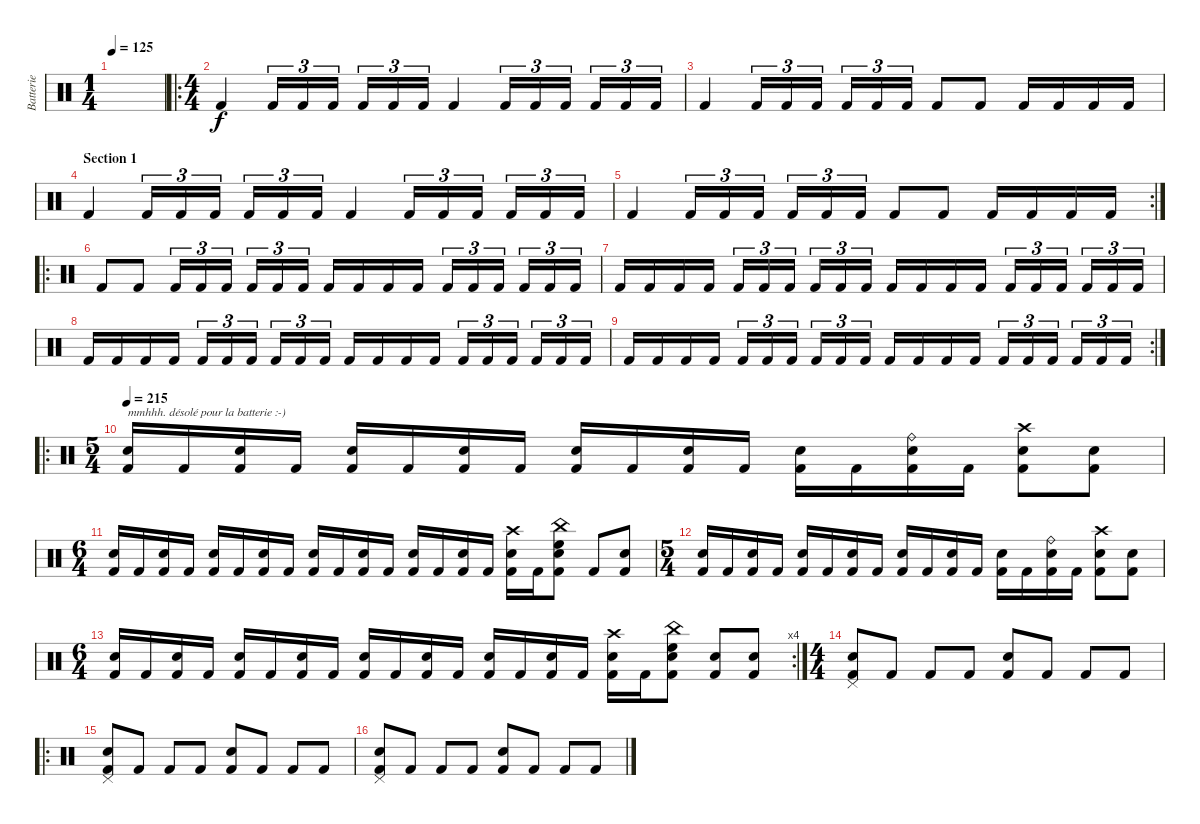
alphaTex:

\track ("Batterie" "Batterie") {instrument percussion}
\staff {score}
\articulation defaults
\ts (1 4)
\tempo 125
\clef neutral
\ks c
|
\ro
\ts (4 4)
"Kick (hit) 2".4 "Kick (hit) 2".16{tu (3 2)} "Kick (hit) 2".16{tu (3 2)} "Kick (hit) 2".16{tu (3 2)} "Kick (hit) 2".16{tu (3 2)} "Kick (hit) 2".16{tu (3 2)} "Kick (hit) 2".16{tu (3 2)} "Kick (hit) 2".4 "Kick (hit) 2".16{tu (3 2)} "Kick (hit) 2".16{tu (3 2)} "Kick (hit) 2".16{tu (3 2)} "Kick (hit) 2".16{tu (3 2)} "Kick (hit) 2".16{tu (3 2)} "Kick (hit) 2".16{tu (3 2)} |
"Kick (hit) 2".4 "Kick (hit) 2".16{tu (3 2)} "Kick (hit) 2".16{tu (3 2)} "Kick (hit) 2".16{tu (3 2)} "Kick (hit) 2".16{tu (3 2)} "Kick (hit) 2".16{tu (3 2)} "Kick (hit) 2".16{tu (3 2)} "Kick (hit) 2".8 "Kick (hit) 2".8 "Kick (hit) 2".16 "Kick (hit) 2".16 "Kick (hit) 2".16 "Kick (hit) 2".16 |
\section ("" "Section 1")
"Kick (hit) 2".4 "Kick (hit) 2".16{tu (3 2)} "Kick (hit) 2".16{tu (3 2)} "Kick (hit) 2".16{tu (3 2)} "Kick (hit) 2".16{tu (3 2)} "Kick (hit) 2".16{tu (3 2)} "Kick (hit) 2".16{tu (3 2)} "Kick (hit) 2".4 "Kick (hit) 2".16{tu (3 2)} "Kick (hit) 2".16{tu (3 2)} "Kick (hit) 2".16{tu (3 2)} "Kick (hit) 2".16{tu (3 2)} "Kick (hit) 2".16{tu (3 2)} "Kick (hit) 2".16{tu (3 2)} |
\rc 2 "Kick (hit) 2".4 "Kick (hit) 2".16{tu (3 2)} "Kick (hit) 2".16{tu (3 2)} "Kick (hit) 2".16{tu (3 2)} "Kick (hit) 2".16{tu (3 2)} "Kick (hit) 2".16{tu (3 2)} "Kick (hit) 2".16{tu (3 2)} "Kick (hit) 2".8 "Kick (hit) 2".8 "Kick (hit) 2".16 "Kick (hit) 2".16 "Kick (hit) 2".16 "Kick (hit) 2".16
|
\ro "Kick (hit) 2".8 "Kick (hit) 2".8 "Kick (hit) 2".16{tu (3 2)} "Kick (hit) 2".16{tu (3 2)} "Kick (hit) 2".16{tu (3 2)} "Kick (hit) 2".16{tu (3 2)} "Kick (hit) 2".16{tu (3 2)} "Kick (hit) 2".16{tu (3 2)} "Kick (hit) 2".16 "Kick (hit) 2".16 "Kick (hit) 2".16 "Kick (hit) 2".16 "Kick (hit) 2".16{tu (3 2)} "Kick (hit) 2".16{tu (3 2)} "Kick (hit) 2".16{tu (3 2)} "Kick (hit) 2".16{tu (3 2)} "Kick (hit) 2".16{tu (3 2)} "Kick (hit) 2".16{tu (3 2)}
|
"Kick (hit) 2".16 "Kick (hit) 2".16 "Kick (hit) 2".16 "Kick (hit) 2".16 "Kick (hit) 2".16{tu (3 2)} "Kick (hit) 2".16{tu (3 2)} "Kick (hit) 2".16{tu (3 2)} "Kick (hit) 2".16{tu (3 2)} "Kick (hit) 2".16{tu (3 2)} "Kick (hit) 2".16{tu (3 2)} "Kick (hit) 2".16 "Kick (hit) 2".16 "Kick (hit) 2".16 "Kick (hit) 2".16 "Kick (hit) 2".16{tu (3 2)} "Kick (hit) 2".16{tu (3 2)} "Kick (hit) 2".16{tu (3 2)} "Kick (hit) 2".16{tu (3 2)} "Kick (hit) 2".16{tu (3 2)} "Kick (hit) 2".16{tu (3 2)} |
"Kick (hit) 2".16 "Kick (hit) 2".16 "Kick (hit) 2".16 "Kick (hit) 2".16 "Kick (hit) 2".16{tu (3 2)} "Kick (hit) 2".16{tu (3 2)} "Kick (hit) 2".16{tu (3 2)} "Kick (hit) 2".16{tu (3 2)} "Kick (hit) 2".16{tu (3 2)} "Kick (hit) 2".16{tu (3 2)} "Kick (hit) 2".16 "Kick (hit) 2".16 "Kick (hit) 2".16 "Kick (hit) 2".16 "Kick (hit) 2".16{tu (3 2)} "Kick (hit) 2".16{tu (3 2)} "Kick (hit) 2".16{tu (3 2)} "Kick (hit) 2".16{tu (3 2)} "Kick (hit) 2".16{tu (3 2)} "Kick (hit) 2".16{tu (3 2)} |
\rc 2 "Kick (hit) 2".16 "Kick (hit) 2".16 "Kick (hit) 2".16 "Kick (hit) 2".16 "Kick (hit) 2".16{tu (3 2)} "Kick (hit) 2".16{tu (3 2)} "Kick (hit) 2".16{tu (3 2)} "Kick (hit) 2".16{tu (3 2)} "Kick (hit) 2".16{tu (3 2)} "Kick (hit) 2".16{tu (3 2)} "Kick (hit) 2".16 "Kick (hit) 2".16 "Kick (hit) 2".16 "Kick (hit) 2".16 "Kick (hit) 2".16{tu (3 2)} "Kick (hit) 2".16{tu (3 2)} "Kick (hit) 2".16{tu (3 2)} "Kick (hit) 2".16{tu (3 2)} "Kick (hit) 2".16{tu (3 2)} "Kick (hit) 2".16{tu (3 2)}
|
\ro
\ts (5 4)
\tempo 215
("Snare (hit) 2" "Kick (hit) 2").16{txt "mmhhh. désolé pour la batterie :-)"} "Kick (hit) 2".16 ("Snare (hit) 2" "Kick (hit) 2").16 "Kick (hit) 2".16 ("Snare (hit) 2" "Kick (hit) 2").16 "Kick (hit) 2".16 ("Snare (hit) 2" "Kick (hit) 2").16 "Kick (hit) 2".16 ("Snare (hit) 2" "Kick (hit) 2").16 "Kick (hit) 2".16 ("Snare (hit) 2" "Kick (hit) 2").16 "Kick (hit) 2".16 ("Snare (hit) 2" "Kick (hit) 2").16 "Kick (hit) 2".16 ("Ride (bell)" "Snare (hit) 2" "Kick (hit) 2").16 "Kick (hit) 2".16 ("Crash high (hit)" "Snare (hit) 2" "Kick (hit) 2").8 ("Snare (hit) 2" "Kick (hit) 2").8 |
\ts (6 4)
("Snare (hit) 2" "Kick (hit) 2").16 "Kick (hit) 2".16 ("Snare (hit) 2" "Kick (hit) 2").16 "Kick (hit) 2".16 ("Snare (hit) 2" "Kick (hit) 2").16 "Kick (hit) 2".16 ("Snare (hit) 2" "Kick (hit) 2").16 "Kick (hit) 2".16 ("Snare (hit) 2" "Kick (hit) 2").16 "Kick (hit) 2".16 ("Snare (hit) 2" "Kick (hit) 2").16 "Kick (hit) 2".16 ("Snare (hit) 2" "Kick (hit) 2").16 "Kick (hit) 2".16 ("Snare (hit) 2" "Kick (hit) 2").16 "Kick (hit) 2".16 ("Crash high (hit)" "Snare (hit) 2" "Kick (hit) 2").16 "Kick (hit) 2".16 ("China (hit)" "High Floor Tom (hit)" "Snare (hit) 2" "Kick (hit) 2").8 "Kick (hit) 2".8 ("Snare (hit) 2" "Kick (hit) 2").8 |
\ts (5 4)
("Snare (hit) 2" "Kick (hit) 2").16 "Kick (hit) 2".16 ("Snare (hit) 2" "Kick (hit) 2").16 "Kick (hit) 2".16 ("Snare (hit) 2" "Kick (hit) 2").16 "Kick (hit) 2".16 ("Snare (hit) 2" "Kick (hit) 2").16 "Kick (hit) 2".16 ("Snare (hit) 2" "Kick (hit) 2").16 "Kick (hit) 2".16 ("Snare (hit) 2" "Kick (hit) 2").16 "Kick (hit) 2".16 ("Snare (hit) 2" "Kick (hit) 2").16 "Kick (hit) 2".16 ("Ride (bell)" "Snare (hit) 2" "Kick (hit) 2").16 "Kick (hit) 2".16 ("Crash high (hit)" "Snare (hit) 2" "Kick (hit) 2").8 ("Snare (hit) 2" "Kick (hit) 2").8 |
\rc 4
\ts (6 4)
("Snare (hit) 2" "Kick (hit) 2").16 "Kick (hit) 2".16 ("Snare (hit) 2" "Kick (hit) 2").16 "Kick (hit) 2".16 ("Snare (hit) 2" "Kick (hit) 2").16 "Kick (hit) 2".16 ("Snare (hit) 2" "Kick (hit) 2").16 "Kick (hit) 2".16 ("Snare (hit) 2" "Kick (hit) 2").16 "Kick (hit) 2".16 ("Snare (hit) 2" "Kick (hit) 2").16 "Kick (hit) 2".16 ("Snare (hit) 2" "Kick (hit) 2").16 "Kick (hit) 2".16 ("Snare (hit) 2" "Kick (hit) 2").16 "Kick (hit) 2".16 ("Crash high (hit)" "Snare (hit) 2" "Kick (hit) 2").16 "Kick (hit) 2".16 ("China (hit)" "High Floor Tom (hit)" "Snare (hit) 2" "Kick (hit) 2").8 ("Snare (hit) 2" "Kick (hit) 2").8 ("Snare (hit) 2" "Kick (hit) 2").8 |
\ts (4 4)
("Pedal Hi-Hat (hit)" "Snare (hit) 2" "Kick (hit) 2").8 "Kick (hit) 2".8 "Kick (hit) 2".8 "Kick (hit) 2".8 ("Snare (hit) 2" "Kick (hit) 2").8 "Kick (hit) 2".8 "Kick (hit) 2".8 "Kick (hit) 2".8 |
\ro
("Pedal Hi-Hat (hit)" "Snare (hit) 2" "Kick (hit) 2").8 "Kick (hit) 2".8 "Kick (hit) 2".8 "Kick (hit) 2".8 ("Snare (hit) 2" "Kick (hit) 2").8 "Kick (hit) 2".8 "Kick (hit) 2".8 "Kick (hit) 2".8 |
("Pedal Hi-Hat (hit)" "Snare (hit) 2" "Kick (hit) 2").8 "Kick (hit) 2".8 "Kick (hit) 2".8 "Kick (hit) 2".8 ("Snare (hit) 2" "Kick (hit) 2").8 "Kick (hit) 2".8 "Kick (hit) 2".8 "Kick (hit) 2".8
